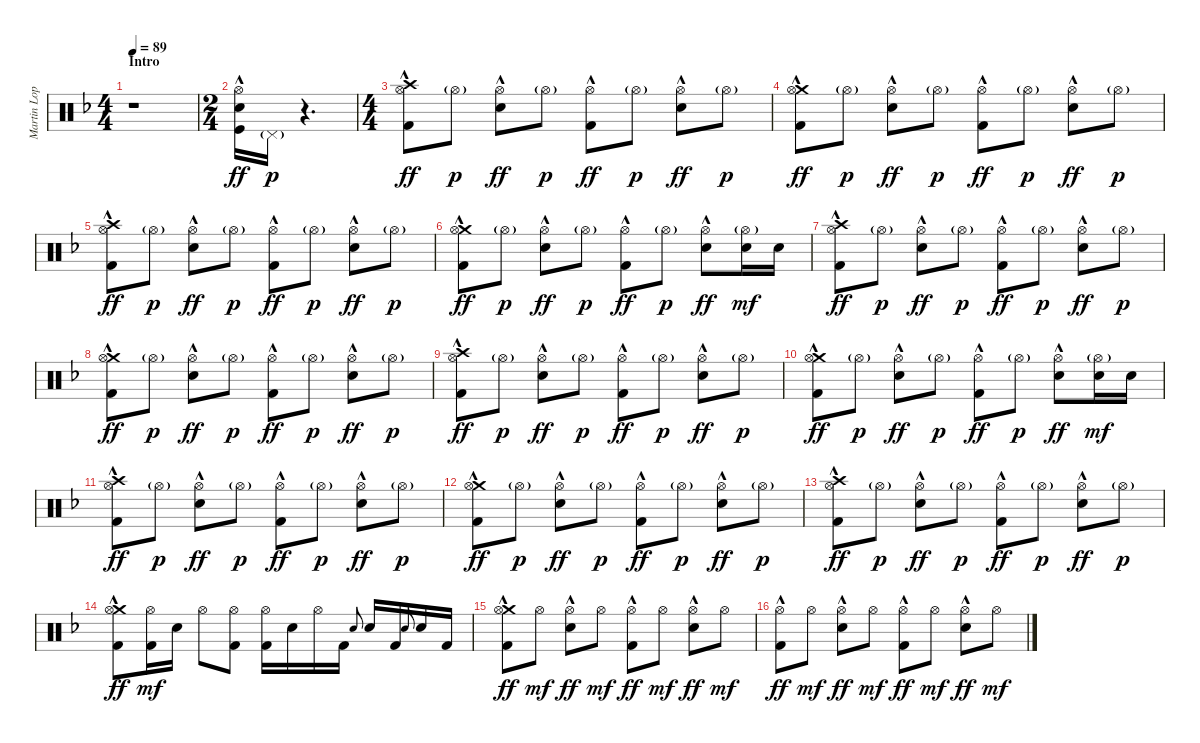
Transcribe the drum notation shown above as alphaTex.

\track ("Martin Lopez - Drums" "Martin Lop") {instrument percussion}
\staff {score}
\articulation defaults
\ts (4 4)
\section ("" "Intro")
\tempo 89
\clef neutral
\ks f
r.1{dy ff} |
\ts (2 4)
("Hi-Hat (open)"{hac} "Electric Snare (hit)"{hac} "Kick (hit)"{hac}).16 "Pedal Hi-Hat (hit)"{g}.16{dy p} r.4{d} |
\ts (4 4)
("Crash high (hit)" "Hi-Hat (open)" "Kick (hit) 2"{hac}).8{dy ff} "Hi-Hat (open)"{g}.8{dy p} ("Hi-Hat (open)" "Electric Snare (hit)"{hac}).8{dy ff} "Hi-Hat (open)"{g}.8{dy p} ("Hi-Hat (open)" "Kick (hit) 2"{hac}).8{dy ff} "Hi-Hat (open)"{g}.8{dy p} ("Hi-Hat (open)" "Electric Snare (hit)"{hac}).8{dy ff} "Hi-Hat (open)"{g}.8{dy p} |
("Crash medium (hit)" "Hi-Hat (open)" "Kick (hit) 2"{hac}).8{dy ff} "Hi-Hat (open)"{g}.8{dy p} ("Hi-Hat (open)" "Electric Snare (hit)"{hac}).8{dy ff} "Hi-Hat (open)"{g}.8{dy p} ("Hi-Hat (open)" "Kick (hit) 2"{hac}).8{dy ff} "Hi-Hat (open)"{g}.8{dy p} ("Hi-Hat (open)" "Electric Snare (hit)"{hac}).8{dy ff} "Hi-Hat (open)"{g}.8{dy p} |
("Crash high (hit)" "Hi-Hat (open)" "Kick (hit) 2"{hac}).8{dy ff} "Hi-Hat (open)"{g}.8{dy p} ("Hi-Hat (open)" "Electric Snare (hit)"{hac}).8{dy ff} "Hi-Hat (open)"{g}.8{dy p} ("Hi-Hat (open)" "Kick (hit) 2"{hac}).8{dy ff} "Hi-Hat (open)"{g}.8{dy p} ("Hi-Hat (open)" "Electric Snare (hit)"{hac}).8{dy ff} "Hi-Hat (open)"{g}.8{dy p} |
("Crash medium (hit)" "Hi-Hat (open)" "Kick (hit) 2"{hac}).8{dy ff} "Hi-Hat (open)"{g}.8{dy p} ("Hi-Hat (open)" "Electric Snare (hit)"{hac}).8{dy ff} "Hi-Hat (open)"{g}.8{dy p} ("Hi-Hat (open)" "Kick (hit) 2"{hac}).8{dy ff} "Hi-Hat (open)"{g}.8{dy p} ("Hi-Hat (open)" "Electric Snare (hit)"{hac}).8{dy ff} ("Hi-Hat (open)"{g} "Electric Snare (hit)").16{dy mf} "Electric Snare (hit)".16 |
("Crash high (hit)" "Hi-Hat (open)" "Kick (hit) 2"{hac}).8{dy ff} "Hi-Hat (open)"{g}.8{dy p} ("Hi-Hat (open)" "Electric Snare (hit)"{hac}).8{dy ff} "Hi-Hat (open)"{g}.8{dy p} ("Hi-Hat (open)" "Kick (hit) 2"{hac}).8{dy ff} "Hi-Hat (open)"{g}.8{dy p} ("Hi-Hat (open)" "Electric Snare (hit)"{hac}).8{dy ff} "Hi-Hat (open)"{g}.8{dy p} |
("Crash medium (hit)" "Hi-Hat (open)" "Kick (hit) 2"{hac}).8{dy ff} "Hi-Hat (open)"{g}.8{dy p} ("Hi-Hat (open)" "Electric Snare (hit)"{hac}).8{dy ff} "Hi-Hat (open)"{g}.8{dy p} ("Hi-Hat (open)" "Kick (hit) 2"{hac}).8{dy ff} "Hi-Hat (open)"{g}.8{dy p} ("Hi-Hat (open)" "Electric Snare (hit)"{hac}).8{dy ff} "Hi-Hat (open)"{g}.8{dy p} |
("Crash high (hit)" "Hi-Hat (open)" "Kick (hit) 2"{hac}).8{dy ff} "Hi-Hat (open)"{g}.8{dy p} ("Hi-Hat (open)" "Electric Snare (hit)"{hac}).8{dy ff} "Hi-Hat (open)"{g}.8{dy p} ("Hi-Hat (open)" "Kick (hit) 2"{hac}).8{dy ff} "Hi-Hat (open)"{g}.8{dy p} ("Hi-Hat (open)" "Electric Snare (hit)"{hac}).8{dy ff} "Hi-Hat (open)"{g}.8{dy p} |
("Crash medium (hit)" "Hi-Hat (open)" "Kick (hit) 2"{hac}).8{dy ff} "Hi-Hat (open)"{g}.8{dy p} ("Hi-Hat (open)" "Electric Snare (hit)"{hac}).8{dy ff} "Hi-Hat (open)"{g}.8{dy p} ("Hi-Hat (open)" "Kick (hit) 2"{hac}).8{dy ff} "Hi-Hat (open)"{g}.8{dy p} ("Hi-Hat (open)" "Electric Snare (hit)"{hac}).8{dy ff} ("Hi-Hat (open)"{g} "Electric Snare (hit)").16{dy mf} "Electric Snare (hit)".16 |
("Crash high (hit)" "Hi-Hat (open)" "Kick (hit) 2"{hac}).8{dy ff} "Hi-Hat (open)"{g}.8{dy p} ("Hi-Hat (open)" "Electric Snare (hit)"{hac}).8{dy ff} "Hi-Hat (open)"{g}.8{dy p} ("Hi-Hat (open)" "Kick (hit) 2"{hac}).8{dy ff} "Hi-Hat (open)"{g}.8{dy p} ("Hi-Hat (open)" "Electric Snare (hit)"{hac}).8{dy ff} "Hi-Hat (open)"{g}.8{dy p} |
("Crash medium (hit)" "Hi-Hat (open)" "Kick (hit) 2"{hac}).8{dy ff} "Hi-Hat (open)"{g}.8{dy p} ("Hi-Hat (open)" "Electric Snare (hit)"{hac}).8{dy ff} "Hi-Hat (open)"{g}.8{dy p} ("Hi-Hat (open)" "Kick (hit) 2"{hac}).8{dy ff} "Hi-Hat (open)"{g}.8{dy p} ("Hi-Hat (open)" "Electric Snare (hit)"{hac}).8{dy ff} "Hi-Hat (open)"{g}.8{dy p} |
("Crash high (hit)" "Hi-Hat (open)" "Kick (hit) 2"{hac}).8{dy ff} "Hi-Hat (open)"{g}.8{dy p} ("Hi-Hat (open)" "Electric Snare (hit)"{hac}).8{dy ff} "Hi-Hat (open)"{g}.8{dy p} ("Hi-Hat (open)" "Kick (hit) 2"{hac}).8{dy ff} "Hi-Hat (open)"{g}.8{dy p} ("Hi-Hat (open)" "Electric Snare (hit)"{hac}).8{dy ff} "Hi-Hat (open)"{g}.8{dy p} |
("Crash medium (hit)" "Hi-Hat (open)" "Kick (hit) 2"{hac}).8{dy ff} ("Hi-Hat (open)" "Kick (hit) 2").16{dy mf} "Electric Snare (hit)".16 "Hi-Hat (open)".8 ("Hi-Hat (open)" "Kick (hit) 2").8 ("Hi-Hat (open)" "Kick (hit) 2").16 "Electric Snare (hit)".16 "Hi-Hat (open)".16 "Kick (hit) 2".16 "Electric Snare (hit)".8{gr onbeat} "Electric Snare (hit)".16 "Kick (hit) 2".16 "Electric Snare (hit)".8{gr onbeat} "Electric Snare (hit)".16 "Kick (hit) 2".16 |
("Crash medium (hit)" "Hi-Hat (open)" "Kick (hit) 2"{hac}).8{dy ff} "Hi-Hat (open)".8{dy mf} ("Hi-Hat (open)" "Electric Snare (hit)"{hac}).8{dy ff} "Hi-Hat (open)".8{dy mf} ("Hi-Hat (open)" "Kick (hit) 2"{hac}).8{dy ff} "Hi-Hat (open)".8{dy mf} ("Hi-Hat (open)" "Electric Snare (hit)"{hac}).8{dy ff} "Hi-Hat (open)".8{dy mf} |
("Hi-Hat (open)" "Kick (hit) 2"{hac}).8{dy ff} "Hi-Hat (open)".8{dy mf} ("Hi-Hat (open)" "Electric Snare (hit)"{hac}).8{dy ff} "Hi-Hat (open)".8{dy mf} ("Hi-Hat (open)" "Kick (hit) 2"{hac}).8{dy ff} "Hi-Hat (open)".8{dy mf} ("Hi-Hat (open)" "Electric Snare (hit)"{hac}).8{dy ff} "Hi-Hat (open)".8{dy mf}
